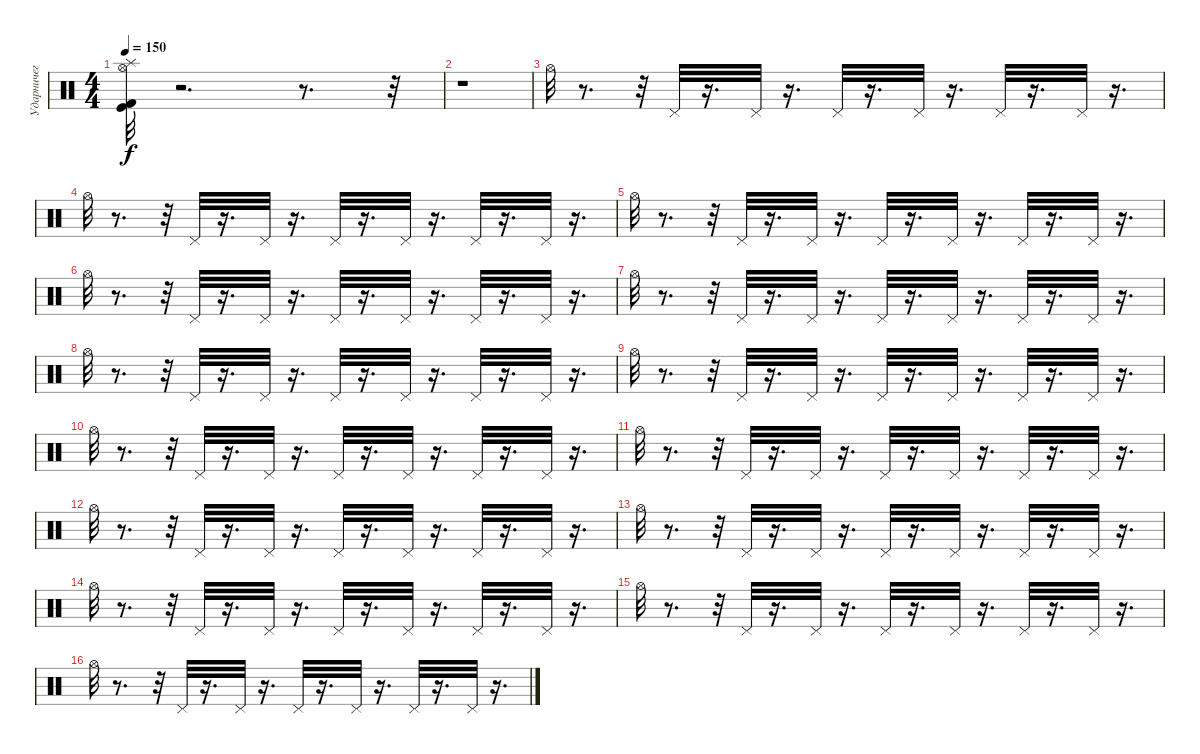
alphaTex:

\track ("Ударничег" "Ударничег") {instrument percussion}
\staff {score}
\articulation defaults
\ts (4 4)
\tempo 150
\clef neutral
\ks c
("Kick (hit)" "Kick (hit) 2" "Hi-Hat (open)" "Splash (hit)").32{dy f} r.2{d} r.8{d} r.32 |
r.1 |
"Hi-Hat (open)".32 r.8{d} r.32 "Pedal Hi-Hat (hit)".32 r.16{d} "Pedal Hi-Hat (hit)".32 r.16{d} "Pedal Hi-Hat (hit)".32 r.16{d} "Pedal Hi-Hat (hit)".32 r.16{d} "Pedal Hi-Hat (hit)".32 r.16{d} "Pedal Hi-Hat (hit)".32 r.16{d} |
"Hi-Hat (open)".32 r.8{d} r.32 "Pedal Hi-Hat (hit)".32 r.16{d} "Pedal Hi-Hat (hit)".32 r.16{d} "Pedal Hi-Hat (hit)".32 r.16{d} "Pedal Hi-Hat (hit)".32 r.16{d} "Pedal Hi-Hat (hit)".32 r.16{d} "Pedal Hi-Hat (hit)".32 r.16{d} |
"Hi-Hat (open)".32 r.8{d} r.32 "Pedal Hi-Hat (hit)".32 r.16{d} "Pedal Hi-Hat (hit)".32 r.16{d} "Pedal Hi-Hat (hit)".32 r.16{d} "Pedal Hi-Hat (hit)".32 r.16{d} "Pedal Hi-Hat (hit)".32 r.16{d} "Pedal Hi-Hat (hit)".32 r.16{d} |
"Hi-Hat (open)".32 r.8{d} r.32 "Pedal Hi-Hat (hit)".32 r.16{d} "Pedal Hi-Hat (hit)".32 r.16{d} "Pedal Hi-Hat (hit)".32 r.16{d} "Pedal Hi-Hat (hit)".32 r.16{d} "Pedal Hi-Hat (hit)".32 r.16{d} "Pedal Hi-Hat (hit)".32 r.16{d} |
"Hi-Hat (open)".32 r.8{d} r.32 "Pedal Hi-Hat (hit)".32 r.16{d} "Pedal Hi-Hat (hit)".32 r.16{d} "Pedal Hi-Hat (hit)".32 r.16{d} "Pedal Hi-Hat (hit)".32 r.16{d} "Pedal Hi-Hat (hit)".32 r.16{d} "Pedal Hi-Hat (hit)".32 r.16{d} |
"Hi-Hat (open)".32 r.8{d} r.32 "Pedal Hi-Hat (hit)".32 r.16{d} "Pedal Hi-Hat (hit)".32 r.16{d} "Pedal Hi-Hat (hit)".32 r.16{d} "Pedal Hi-Hat (hit)".32 r.16{d} "Pedal Hi-Hat (hit)".32 r.16{d} "Pedal Hi-Hat (hit)".32 r.16{d} |
"Hi-Hat (open)".32 r.8{d} r.32 "Pedal Hi-Hat (hit)".32 r.16{d} "Pedal Hi-Hat (hit)".32 r.16{d} "Pedal Hi-Hat (hit)".32 r.16{d} "Pedal Hi-Hat (hit)".32 r.16{d} "Pedal Hi-Hat (hit)".32 r.16{d} "Pedal Hi-Hat (hit)".32 r.16{d} |
"Hi-Hat (open)".32 r.8{d} r.32 "Pedal Hi-Hat (hit)".32 r.16{d} "Pedal Hi-Hat (hit)".32 r.16{d} "Pedal Hi-Hat (hit)".32 r.16{d} "Pedal Hi-Hat (hit)".32 r.16{d} "Pedal Hi-Hat (hit)".32 r.16{d} "Pedal Hi-Hat (hit)".32 r.16{d} |
"Hi-Hat (open)".32 r.8{d} r.32 "Pedal Hi-Hat (hit)".32 r.16{d} "Pedal Hi-Hat (hit)".32 r.16{d} "Pedal Hi-Hat (hit)".32 r.16{d} "Pedal Hi-Hat (hit)".32 r.16{d} "Pedal Hi-Hat (hit)".32 r.16{d} "Pedal Hi-Hat (hit)".32 r.16{d} |
"Hi-Hat (open)".32 r.8{d} r.32 "Pedal Hi-Hat (hit)".32 r.16{d} "Pedal Hi-Hat (hit)".32 r.16{d} "Pedal Hi-Hat (hit)".32 r.16{d} "Pedal Hi-Hat (hit)".32 r.16{d} "Pedal Hi-Hat (hit)".32 r.16{d} "Pedal Hi-Hat (hit)".32 r.16{d} |
"Hi-Hat (open)".32 r.8{d} r.32 "Pedal Hi-Hat (hit)".32 r.16{d} "Pedal Hi-Hat (hit)".32 r.16{d} "Pedal Hi-Hat (hit)".32 r.16{d} "Pedal Hi-Hat (hit)".32 r.16{d} "Pedal Hi-Hat (hit)".32 r.16{d} "Pedal Hi-Hat (hit)".32 r.16{d} |
"Hi-Hat (open)".32 r.8{d} r.32 "Pedal Hi-Hat (hit)".32 r.16{d} "Pedal Hi-Hat (hit)".32 r.16{d} "Pedal Hi-Hat (hit)".32 r.16{d} "Pedal Hi-Hat (hit)".32 r.16{d} "Pedal Hi-Hat (hit)".32 r.16{d} "Pedal Hi-Hat (hit)".32 r.16{d} |
"Hi-Hat (open)".32 r.8{d} r.32 "Pedal Hi-Hat (hit)".32 r.16{d} "Pedal Hi-Hat (hit)".32 r.16{d} "Pedal Hi-Hat (hit)".32 r.16{d} "Pedal Hi-Hat (hit)".32 r.16{d} "Pedal Hi-Hat (hit)".32 r.16{d} "Pedal Hi-Hat (hit)".32 r.16{d} |
"Hi-Hat (open)".32 r.8{d} r.32 "Pedal Hi-Hat (hit)".32 r.16{d} "Pedal Hi-Hat (hit)".32 r.16{d} "Pedal Hi-Hat (hit)".32 r.16{d} "Pedal Hi-Hat (hit)".32 r.16{d} "Pedal Hi-Hat (hit)".32 r.16{d} "Pedal Hi-Hat (hit)".32 r.16{d}
